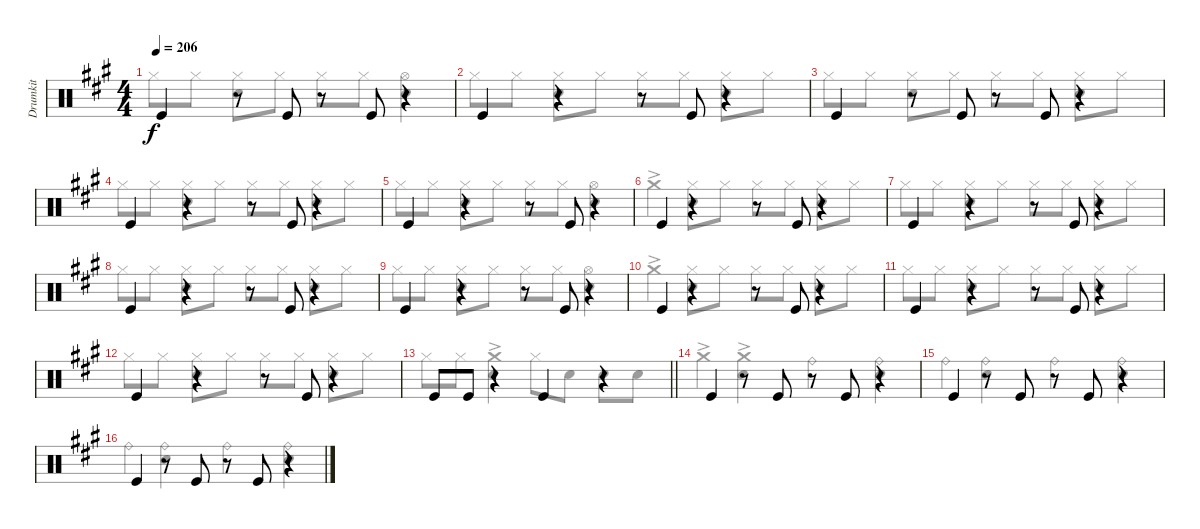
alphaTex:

\track ("Drumkit" "Drumkit") {instrument percussion}
\staff {score}
\articulation defaults
\voice
\ts (4 4)
\tempo 206
\clef neutral
\ks a "Kick (hit)".4{dy f}
r.8 "Kick (hit)".8 r.8 "Kick (hit)".8 r.4 |
"Kick (hit)".4 r.4 r.8 "Kick (hit)".8 r.4 |
"Kick (hit)".4 r.8 "Kick (hit)".8 r.8 "Kick (hit)".8 r.4 |
"Kick (hit)".4 r.4 r.8 "Kick (hit)".8 r.4 |
"Kick (hit)".4 r.4 r.8 "Kick (hit)".8 r.4 |
"Kick (hit)".4 r.4 r.8 "Kick (hit)".8 r.4 |
"Kick (hit)".4 r.4 r.8 "Kick (hit)".8 r.4 |
"Kick (hit)".4 r.4 r.8 "Kick (hit)".8 r.4 |
"Kick (hit)".4 r.4 r.8 "Kick (hit)".8 r.4 |
"Kick (hit)".4 r.4 r.8 "Kick (hit)".8 r.4 |
"Kick (hit)".4 r.4 r.8 "Kick (hit)".8 r.4 |
"Kick (hit)".4 r.4 r.8 "Kick (hit)".8 r.4 |
\barLineRight lightlight "Kick (hit)".8 "Kick (hit)".8
r.4 "Kick (hit)".4 r.4 |
\section ("" "")
"Kick (hit)".4 r.8 "Kick (hit)".8 r.8 "Kick (hit)".8 r.4 |
"Kick (hit)".4 r.8 "Kick (hit)".8 r.8 "Kick (hit)".8 r.4 |
"Kick (hit)".4 r.8 "Kick (hit)".8 r.8 "Kick (hit)".8 r.4
\voice
\clef neutral
\ottava regular
\simile none
\ks a "Hi-Hat (closed)".8{dy f} "Hi-Hat (closed)".8
("Hi-Hat (closed)" "Snare (hit) 2").8 "Hi-Hat (closed)".8 "Hi-Hat (closed)".8 "Hi-Hat (closed)".8 ("Hi-Hat (open)" "Snare (hit) 2").4 |
"Hi-Hat (closed)".8 "Hi-Hat (closed)".8 ("Hi-Hat (closed)" "Snare (hit) 2").8 "Hi-Hat (closed)".8 "Hi-Hat (closed)".8 "Hi-Hat (closed)".8 ("Hi-Hat (closed)" "Snare (hit) 2").8 "Hi-Hat (closed)".8 |
"Hi-Hat (closed)".8 "Hi-Hat (closed)".8 ("Hi-Hat (closed)" "Snare (hit) 2").8 "Hi-Hat (closed)".8 "Hi-Hat (closed)".8 "Hi-Hat (closed)".8 ("Snare (hit) 2" "Hi-Hat (closed)").8 "Hi-Hat (closed)".8 |
"Hi-Hat (closed)".8 "Hi-Hat (closed)".8 ("Hi-Hat (closed)" "Snare (hit) 2").8 "Hi-Hat (closed)".8 "Hi-Hat (closed)".8 "Hi-Hat (closed)".8 ("Hi-Hat (closed)" "Snare (hit) 2").8 "Hi-Hat (closed)".8 |
"Hi-Hat (closed)".8 "Hi-Hat (closed)".8 ("Hi-Hat (closed)" "Snare (hit) 2").8 "Hi-Hat (closed)".8 "Hi-Hat (closed)".8 "Hi-Hat (closed)".8 ("Hi-Hat (open)" "Snare (hit) 2").4 |
"Crash medium (hit)"{ac}.4 ("Hi-Hat (closed)" "Snare (hit) 2").8 "Hi-Hat (closed)".8 "Hi-Hat (closed)".8 "Hi-Hat (closed)".8 ("Hi-Hat (closed)" "Snare (hit) 2").8 "Hi-Hat (closed)".8 |
"Hi-Hat (closed)".8 "Hi-Hat (closed)".8 ("Hi-Hat (closed)" "Snare (hit) 2").8 "Hi-Hat (closed)".8 "Hi-Hat (closed)".8 "Hi-Hat (closed)".8 ("Hi-Hat (closed)" "Snare (hit) 2").8 "Hi-Hat (closed)".8 |
"Hi-Hat (closed)".8 "Hi-Hat (closed)".8 ("Hi-Hat (closed)" "Snare (hit) 2").8 "Hi-Hat (closed)".8 "Hi-Hat (closed)".8 "Hi-Hat (closed)".8 ("Hi-Hat (closed)" "Snare (hit) 2").8 "Hi-Hat (closed)".8 |
"Hi-Hat (closed)".8 "Hi-Hat (closed)".8 ("Hi-Hat (closed)" "Snare (hit) 2").8 "Hi-Hat (closed)".8 "Hi-Hat (closed)".8 "Hi-Hat (closed)".8 ("Hi-Hat (open)" "Snare (hit) 2").4 |
"Crash medium (hit)"{ac}.4 ("Hi-Hat (closed)" "Snare (hit) 2").8 "Hi-Hat (closed)".8 "Hi-Hat (closed)".8 "Hi-Hat (closed)".8 ("Hi-Hat (closed)" "Snare (hit) 2").8 "Hi-Hat (closed)".8 |
"Hi-Hat (closed)".8 "Hi-Hat (closed)".8 ("Hi-Hat (closed)" "Snare (hit) 2").8 "Hi-Hat (closed)".8 "Hi-Hat (closed)".8 "Hi-Hat (closed)".8 ("Hi-Hat (closed)" "Snare (hit) 2").8 "Hi-Hat (closed)".8 |
"Hi-Hat (closed)".8 "Hi-Hat (closed)".8 ("Hi-Hat (closed)" "Snare (hit) 2").8 "Hi-Hat (closed)".8 "Hi-Hat (closed)".8 "Hi-Hat (closed)".8 ("Hi-Hat (closed)" "Snare (hit) 2").8 "Hi-Hat (closed)".8 |
\barLineRight lightlight "Hi-Hat (closed)".8 "Hi-Hat (closed)".8
("Crash medium (hit)"{ac} "Snare (hit) 2").4 "Hi-Hat (closed)".8 "Snare (hit) 2".8 "Snare (hit) 2".8 "Snare (hit) 2".8 |
"Crash medium (hit)"{ac}.4 ("Crash medium (hit)"{ac} "Snare (hit) 2").4 "Ride (bell)".4 ("Ride (bell)" "Snare (hit) 2").4 |
"Ride (bell)".4 ("Snare (hit) 2" "Ride (bell)").4 "Ride (bell)".4 ("Ride (bell)" "Snare (hit) 2").4 |
"Ride (bell)".4 ("Snare (hit) 2" "Ride (bell)").4 "Ride (bell)".4 ("Ride (bell)" "Snare (hit) 2").4
